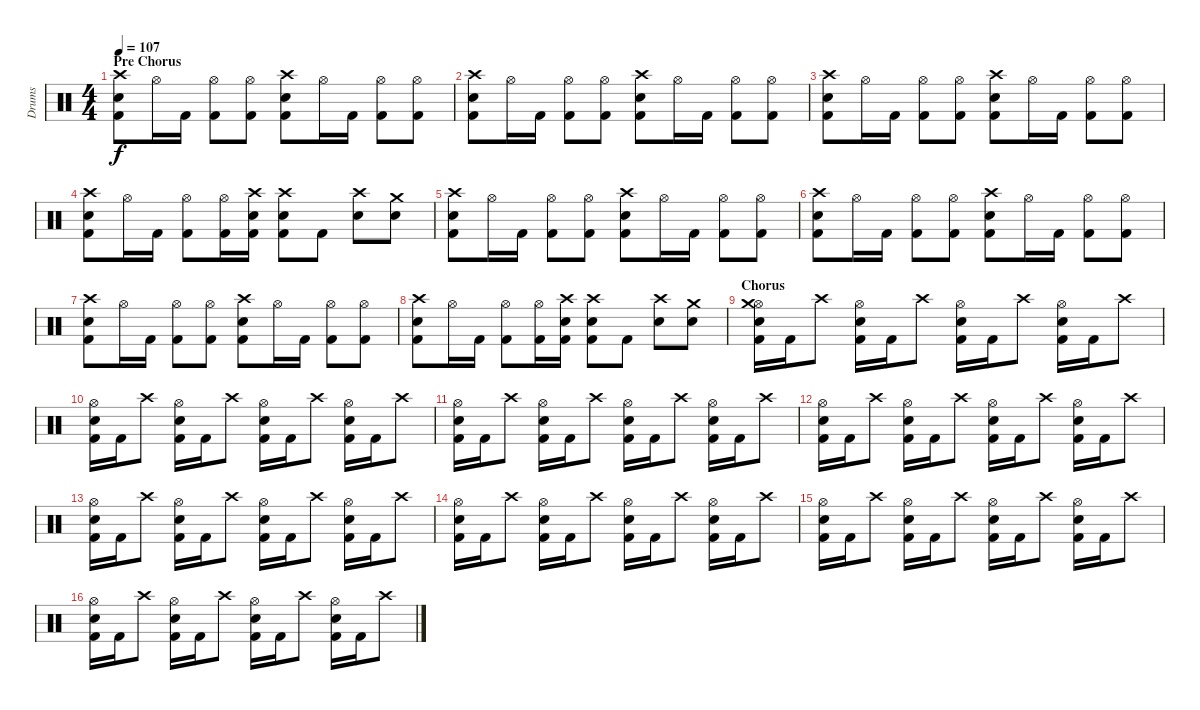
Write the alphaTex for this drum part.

\track ("Drums" "Drums") {instrument percussion}
\staff {score}
\articulation defaults
\ts (4 4)
\section ("" "Pre Chorus")
\tempo 107
\clef neutral
\ks c
("Crash high (hit)" "Snare (hit) 2" "Kick (hit) 2").8{dy f} "Hi-Hat (open)".16 "Kick (hit) 2".16 ("Hi-Hat (open)" "Kick (hit) 2").8 ("Hi-Hat (open)" "Kick (hit) 2").8 ("Crash high (hit)" "Snare (hit) 2" "Kick (hit) 2").8 "Hi-Hat (open)".16 "Kick (hit) 2".16 ("Hi-Hat (open)" "Kick (hit) 2").8 ("Hi-Hat (open)" "Kick (hit) 2").8 |
("Crash high (hit)" "Snare (hit) 2" "Kick (hit) 2").8 "Hi-Hat (open)".16 "Kick (hit) 2".16 ("Hi-Hat (open)" "Kick (hit) 2").8 ("Hi-Hat (open)" "Kick (hit) 2").8 ("Crash high (hit)" "Snare (hit) 2" "Kick (hit) 2").8 "Hi-Hat (open)".16 "Kick (hit) 2".16 ("Hi-Hat (open)" "Kick (hit) 2").8 ("Hi-Hat (open)" "Kick (hit) 2").8 |
("Crash high (hit)" "Snare (hit) 2" "Kick (hit) 2").8 "Hi-Hat (open)".16 "Kick (hit) 2".16 ("Hi-Hat (open)" "Kick (hit) 2").8 ("Hi-Hat (open)" "Kick (hit) 2").8 ("Crash high (hit)" "Snare (hit) 2" "Kick (hit) 2").8 "Hi-Hat (open)".16 "Kick (hit) 2".16 ("Hi-Hat (open)" "Kick (hit) 2").8 ("Hi-Hat (open)" "Kick (hit) 2").8 |
("Crash high (hit)" "Snare (hit) 2" "Kick (hit) 2").8 "Hi-Hat (open)".16 "Kick (hit) 2".16 ("Hi-Hat (open)" "Kick (hit) 2").8 ("Hi-Hat (open)" "Kick (hit) 2").16 ("Crash high (hit)" "Snare (hit) 2" "Kick (hit) 2").16 ("Crash high (hit)" "Snare (hit) 2" "Kick (hit) 2").8 "Kick (hit) 2".8 ("Crash high (hit)" "Snare (hit) 2").8 ("Crash medium (hit)" "Snare (hit) 2").8 |
("Crash high (hit)" "Snare (hit) 2" "Kick (hit) 2").8 "Hi-Hat (open)".16 "Kick (hit) 2".16 ("Hi-Hat (open)" "Kick (hit) 2").8 ("Hi-Hat (open)" "Kick (hit) 2").8 ("Crash high (hit)" "Snare (hit) 2" "Kick (hit) 2").8 "Hi-Hat (open)".16 "Kick (hit) 2".16 ("Hi-Hat (open)" "Kick (hit) 2").8 ("Hi-Hat (open)" "Kick (hit) 2").8 |
("Crash high (hit)" "Snare (hit) 2" "Kick (hit) 2").8 "Hi-Hat (open)".16 "Kick (hit) 2".16 ("Hi-Hat (open)" "Kick (hit) 2").8 ("Hi-Hat (open)" "Kick (hit) 2").8 ("Crash high (hit)" "Snare (hit) 2" "Kick (hit) 2").8 "Hi-Hat (open)".16 "Kick (hit) 2".16 ("Hi-Hat (open)" "Kick (hit) 2").8 ("Hi-Hat (open)" "Kick (hit) 2").8 |
("Crash high (hit)" "Snare (hit) 2" "Kick (hit) 2").8 "Hi-Hat (open)".16 "Kick (hit) 2".16 ("Hi-Hat (open)" "Kick (hit) 2").8 ("Hi-Hat (open)" "Kick (hit) 2").8 ("Crash high (hit)" "Snare (hit) 2" "Kick (hit) 2").8 "Hi-Hat (open)".16 "Kick (hit) 2".16 ("Hi-Hat (open)" "Kick (hit) 2").8 ("Hi-Hat (open)" "Kick (hit) 2").8 |
("Crash high (hit)" "Snare (hit) 2" "Kick (hit) 2").8 "Hi-Hat (open)".16 "Kick (hit) 2".16 ("Hi-Hat (open)" "Kick (hit) 2").8 ("Hi-Hat (open)" "Kick (hit) 2").16 ("Crash high (hit)" "Snare (hit) 2" "Kick (hit) 2").16 ("Crash high (hit)" "Snare (hit) 2" "Kick (hit) 2").8 "Kick (hit) 2".8 ("Crash high (hit)" "Snare (hit) 2").8 ("Crash medium (hit)" "Snare (hit) 2").8 |
\section ("" "Chorus")
("Hi-Hat (open)" "Snare (hit) 2" "Kick (hit) 2" "Crash medium (hit)").16 "Kick (hit) 2".16 "Crash high (hit)".8 ("Hi-Hat (open)" "Snare (hit) 2" "Kick (hit) 2").16 "Kick (hit) 2".16 "Crash high (hit)".8 ("Hi-Hat (open)" "Snare (hit) 2" "Kick (hit) 2").16 "Kick (hit) 2".16 "Crash high (hit)".8 ("Hi-Hat (open)" "Snare (hit) 2" "Kick (hit) 2").16 "Kick (hit) 2".16 "Crash high (hit)".8 |
("Hi-Hat (open)" "Snare (hit) 2" "Kick (hit) 2").16 "Kick (hit) 2".16 "Crash high (hit)".8 ("Hi-Hat (open)" "Snare (hit) 2" "Kick (hit) 2").16 "Kick (hit) 2".16 "Crash high (hit)".8 ("Hi-Hat (open)" "Snare (hit) 2" "Kick (hit) 2").16 "Kick (hit) 2".16 "Crash high (hit)".8 ("Hi-Hat (open)" "Snare (hit) 2" "Kick (hit) 2").16 "Kick (hit) 2".16 "Crash high (hit)".8 |
("Hi-Hat (open)" "Snare (hit) 2" "Kick (hit) 2").16 "Kick (hit) 2".16 "Crash high (hit)".8 ("Hi-Hat (open)" "Snare (hit) 2" "Kick (hit) 2").16 "Kick (hit) 2".16 "Crash high (hit)".8 ("Hi-Hat (open)" "Snare (hit) 2" "Kick (hit) 2").16 "Kick (hit) 2".16 "Crash high (hit)".8 ("Hi-Hat (open)" "Snare (hit) 2" "Kick (hit) 2").16 "Kick (hit) 2".16 "Crash high (hit)".8 |
("Hi-Hat (open)" "Snare (hit) 2" "Kick (hit) 2").16 "Kick (hit) 2".16 "Crash high (hit)".8 ("Hi-Hat (open)" "Snare (hit) 2" "Kick (hit) 2").16 "Kick (hit) 2".16 "Crash high (hit)".8 ("Hi-Hat (open)" "Snare (hit) 2" "Kick (hit) 2").16 "Kick (hit) 2".16 "Crash high (hit)".8 ("Hi-Hat (open)" "Snare (hit) 2" "Kick (hit) 2").16 "Kick (hit) 2".16 "Crash high (hit)".8 |
("Hi-Hat (open)" "Snare (hit) 2" "Kick (hit) 2").16 "Kick (hit) 2".16 "Crash high (hit)".8 ("Hi-Hat (open)" "Snare (hit) 2" "Kick (hit) 2").16 "Kick (hit) 2".16 "Crash high (hit)".8 ("Hi-Hat (open)" "Snare (hit) 2" "Kick (hit) 2").16 "Kick (hit) 2".16 "Crash high (hit)".8 ("Hi-Hat (open)" "Snare (hit) 2" "Kick (hit) 2").16 "Kick (hit) 2".16 "Crash high (hit)".8 |
("Hi-Hat (open)" "Snare (hit) 2" "Kick (hit) 2").16 "Kick (hit) 2".16 "Crash high (hit)".8 ("Hi-Hat (open)" "Snare (hit) 2" "Kick (hit) 2").16 "Kick (hit) 2".16 "Crash high (hit)".8 ("Hi-Hat (open)" "Snare (hit) 2" "Kick (hit) 2").16 "Kick (hit) 2".16 "Crash high (hit)".8 ("Hi-Hat (open)" "Snare (hit) 2" "Kick (hit) 2").16 "Kick (hit) 2".16 "Crash high (hit)".8 |
("Hi-Hat (open)" "Snare (hit) 2" "Kick (hit) 2").16 "Kick (hit) 2".16 "Crash high (hit)".8 ("Hi-Hat (open)" "Snare (hit) 2" "Kick (hit) 2").16 "Kick (hit) 2".16 "Crash high (hit)".8 ("Hi-Hat (open)" "Snare (hit) 2" "Kick (hit) 2").16 "Kick (hit) 2".16 "Crash high (hit)".8 ("Hi-Hat (open)" "Snare (hit) 2" "Kick (hit) 2").16 "Kick (hit) 2".16 "Crash high (hit)".8 |
("Hi-Hat (open)" "Snare (hit) 2" "Kick (hit) 2").16 "Kick (hit) 2".16 "Crash high (hit)".8 ("Hi-Hat (open)" "Snare (hit) 2" "Kick (hit) 2").16 "Kick (hit) 2".16 "Crash high (hit)".8 ("Hi-Hat (open)" "Snare (hit) 2" "Kick (hit) 2").16 "Kick (hit) 2".16 "Crash high (hit)".8 ("Hi-Hat (open)" "Snare (hit) 2" "Kick (hit) 2").16 "Kick (hit) 2".16 "Crash high (hit)".8
